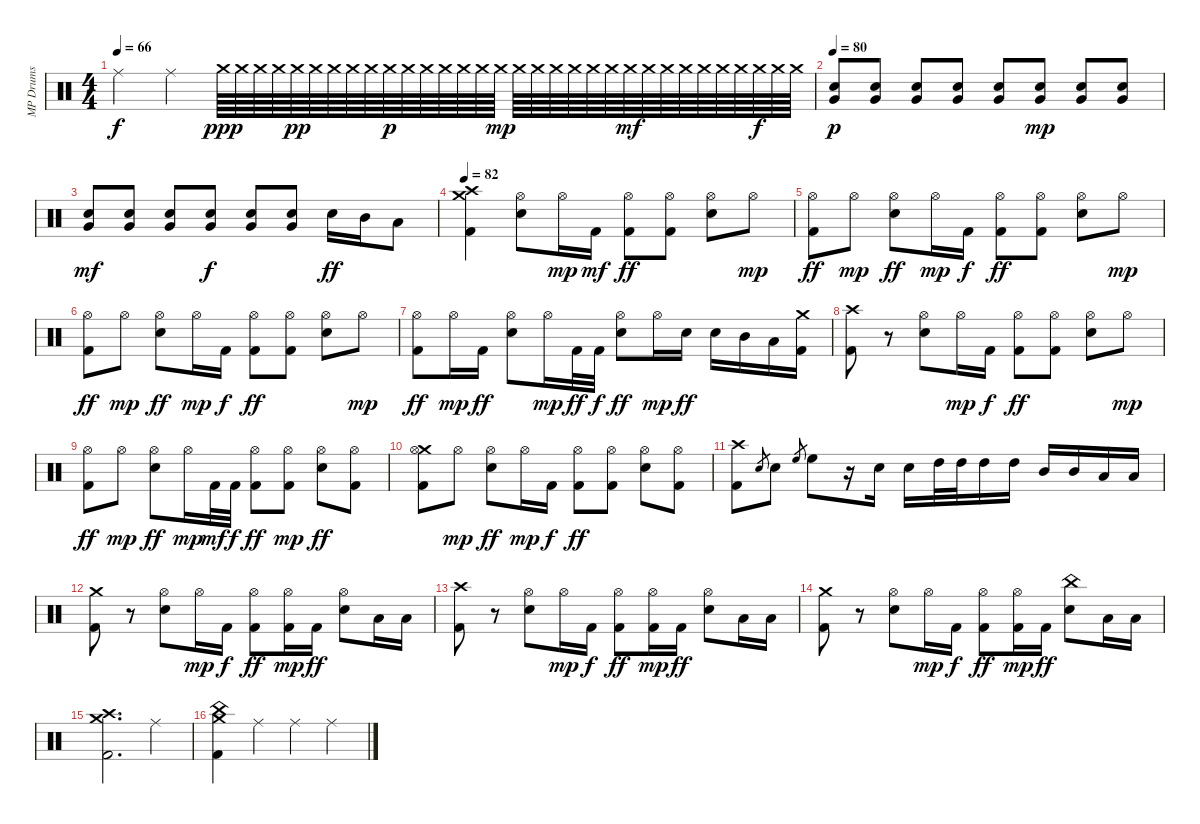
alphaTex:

\track ("MP Drums" "MP Drums") {instrument percussion}
\staff {score}
\articulation defaults
\ts (4 4)
\tempo 66
\clef neutral
\ks c "Ride (middle)".4{dy f} "Ride (middle)".4 "Crash medium (hit)".64{dy ppp} "Crash medium (hit)".64 "Crash medium (hit)".64 "Crash medium (hit)".64 "Crash medium (hit)".64{dy pp} "Crash medium (hit)".64 "Crash medium (hit)".64 "Crash medium (hit)".64 "Crash medium (hit)".64 "Crash medium (hit)".64{dy p} "Crash medium (hit)".64 "Crash medium (hit)".64 "Crash medium (hit)".64 "Crash medium (hit)".64 "Crash medium (hit)".64 "Crash medium (hit)".64{dy mp} "Crash medium (hit)".64 "Crash medium (hit)".64 "Crash medium (hit)".64 "Crash medium (hit)".64 "Crash medium (hit)".64 "Crash medium (hit)".64 "Crash medium (hit)".64{dy mf} "Crash medium (hit)".64 "Crash medium (hit)".64 "Crash medium (hit)".64 "Crash medium (hit)".64 "Crash medium (hit)".64 "Crash medium (hit)".64 "Crash medium (hit)".64{dy f} "Crash medium (hit)".64 "Crash medium (hit)".64
|
\tempo 80
("Very Low Tom (hit)" "Snare (hit) 2").8{dy p} ("Very Low Tom (hit)" "Snare (hit) 2").8 ("Very Low Tom (hit)" "Snare (hit) 2").8 ("Very Low Tom (hit)" "Snare (hit) 2").8 ("Very Low Tom (hit)" "Snare (hit) 2").8 ("Very Low Tom (hit)" "Snare (hit) 2").8{dy mp} ("Very Low Tom (hit)" "Snare (hit) 2").8 ("Very Low Tom (hit)" "Snare (hit) 2").8 |
("Very Low Tom (hit)" "Snare (hit) 2").8{dy mf} ("Very Low Tom (hit)" "Snare (hit) 2").8 ("Very Low Tom (hit)" "Snare (hit) 2").8 ("Very Low Tom (hit)" "Snare (hit) 2").8{dy f} ("Very Low Tom (hit)" "Snare (hit) 2").8 ("Very Low Tom (hit)" "Snare (hit) 2").8 "Snare (hit) 2".16{dy ff} "Mid Tom (hit)".16 "Low Tom (hit)".8 |
\tempo 82
("Crash high (hit)" "Crash medium (hit)" "Kick (hit) 2").4 ("Hi-Hat (open)" "Snare (hit) 2").8 "Hi-Hat (open)".16{dy mp} "Kick (hit) 2".16{dy mf} ("Hi-Hat (open)" "Kick (hit) 2").8{dy ff} ("Hi-Hat (open)" "Kick (hit) 2").8 ("Hi-Hat (open)" "Snare (hit) 2").8 "Hi-Hat (open)".8{dy mp} |
("Hi-Hat (open)" "Kick (hit) 2").8{dy ff} "Hi-Hat (open)".8{dy mp} ("Hi-Hat (open)" "Snare (hit) 2").8{dy ff} "Hi-Hat (open)".16{dy mp} "Kick (hit) 2".16{dy f} ("Hi-Hat (open)" "Kick (hit) 2").8{dy ff} ("Hi-Hat (open)" "Kick (hit) 2").8 ("Hi-Hat (open)" "Snare (hit) 2").8 "Hi-Hat (open)".8{dy mp} |
("Hi-Hat (open)" "Kick (hit) 2").8{dy ff} "Hi-Hat (open)".8{dy mp} ("Hi-Hat (open)" "Snare (hit) 2").8{dy ff} "Hi-Hat (open)".16{dy mp} "Kick (hit) 2".16{dy f} ("Hi-Hat (open)" "Kick (hit) 2").8{dy ff} ("Hi-Hat (open)" "Kick (hit) 2").8 ("Hi-Hat (open)" "Snare (hit) 2").8 "Hi-Hat (open)".8{dy mp} |
("Hi-Hat (open)" "Kick (hit) 2").8{dy ff} "Hi-Hat (open)".16{dy mp} "Kick (hit) 2".16{dy ff} ("Hi-Hat (open)" "Snare (hit) 2").8 "Hi-Hat (open)".16{dy mp} "Kick (hit) 2".32{dy ff} "Kick (hit) 2".32{dy f} ("Hi-Hat (open)" "Snare (hit) 2").8{dy ff} "Hi-Hat (open)".16{dy mp} "Snare (hit) 2".16{dy ff} "Snare (hit) 2".16 "Mid Tom (hit)".16 "Low Tom (hit)".16 ("Crash medium (hit)" "Kick (hit) 2").16 |
("Crash high (hit)" "Kick (hit) 2").8 r.8 ("Hi-Hat (open)" "Snare (hit) 2").8 "Hi-Hat (open)".16{dy mp} "Kick (hit) 2".16{dy f} ("Hi-Hat (open)" "Kick (hit) 2").8{dy ff} ("Hi-Hat (open)" "Kick (hit) 2").8 ("Hi-Hat (open)" "Snare (hit) 2").8 "Hi-Hat (open)".8{dy mp} |
("Hi-Hat (open)" "Kick (hit) 2").8{dy ff} "Hi-Hat (open)".8{dy mp} ("Hi-Hat (open)" "Snare (hit) 2").8{dy ff} "Hi-Hat (open)".16{dy mp} "Kick (hit) 2".32{dy mf} "Kick (hit) 2".32{dy f} ("Hi-Hat (open)" "Kick (hit) 2").8{dy ff} ("Hi-Hat (open)" "Kick (hit) 2").8{dy mp} ("Hi-Hat (open)" "Snare (hit) 2").8{dy ff} ("Hi-Hat (open)" "Kick (hit) 2").8 |
("Crash medium (hit)" "Hi-Hat (open)" "Kick (hit) 2").8 "Hi-Hat (open)".8{dy mp} ("Hi-Hat (open)" "Snare (hit) 2").8{dy ff} "Hi-Hat (open)".16{dy mp} "Kick (hit) 2".16{dy f} ("Hi-Hat (open)" "Kick (hit) 2").8{dy ff} ("Hi-Hat (open)" "Kick (hit) 2").8 ("Hi-Hat (open)" "Snare (hit) 2").8 ("Hi-Hat (open)" "Kick (hit) 2").8 |
("Crash high (hit)" "Kick (hit) 2").8 "Snare (hit) 2".8{gr} "Snare (hit) 2".8 "High Floor Tom (hit)".8{gr} "High Floor Tom (hit)".8 r.16 "Snare (hit) 2".16 "Snare (hit) 2".16 "High Tom (hit)".32 "High Tom (hit)".32 "High Tom (hit)".16 "High Tom (hit)".16 "Mid Tom (hit)".16 "Mid Tom (hit)".16 "Low Tom (hit)".16 "Low Tom (hit)".16 |
("Crash medium (hit)" "Kick (hit) 2").8 r.8 ("Hi-Hat (open)" "Snare (hit) 2").8 "Hi-Hat (open)".16{dy mp} "Kick (hit) 2".16{dy f} ("Hi-Hat (open)" "Kick (hit) 2").8{dy ff} ("Hi-Hat (open)" "Kick (hit) 2").16{dy mp} "Kick (hit) 2".16{dy ff} ("Hi-Hat (open)" "Snare (hit) 2").8 "Low Tom (hit)".16 "Low Tom (hit)".16 |
("Crash high (hit)" "Kick (hit) 2").8 r.8 ("Hi-Hat (open)" "Snare (hit) 2").8 "Hi-Hat (open)".16{dy mp} "Kick (hit) 2".16{dy f} ("Hi-Hat (open)" "Kick (hit) 2").8{dy ff} ("Hi-Hat (open)" "Kick (hit) 2").16{dy mp} "Kick (hit) 2".16{dy ff} ("Hi-Hat (open)" "Snare (hit) 2").8 "Low Tom (hit)".16 "Low Tom (hit)".16 |
("Crash medium (hit)" "Kick (hit) 2").8 r.8 ("Hi-Hat (open)" "Snare (hit) 2").8 "Hi-Hat (open)".16{dy mp} "Kick (hit) 2".16{dy f} ("Hi-Hat (open)" "Kick (hit) 2").8{dy ff} ("Hi-Hat (open)" "Kick (hit) 2").16{dy mp} "Kick (hit) 2".16{dy ff} ("China (hit)" "Snare (hit) 2").8 "Low Tom (hit)".16 "Low Tom (hit)".16 |
("Crash high (hit)" "Crash medium (hit)" "Kick (hit) 2").2{d} "Ride (middle)".4 |
("China (hit)" "Crash medium (hit)" "Kick (hit) 2").4 "Ride (middle)".4 "Ride (middle)".4 "Ride (middle)".4
